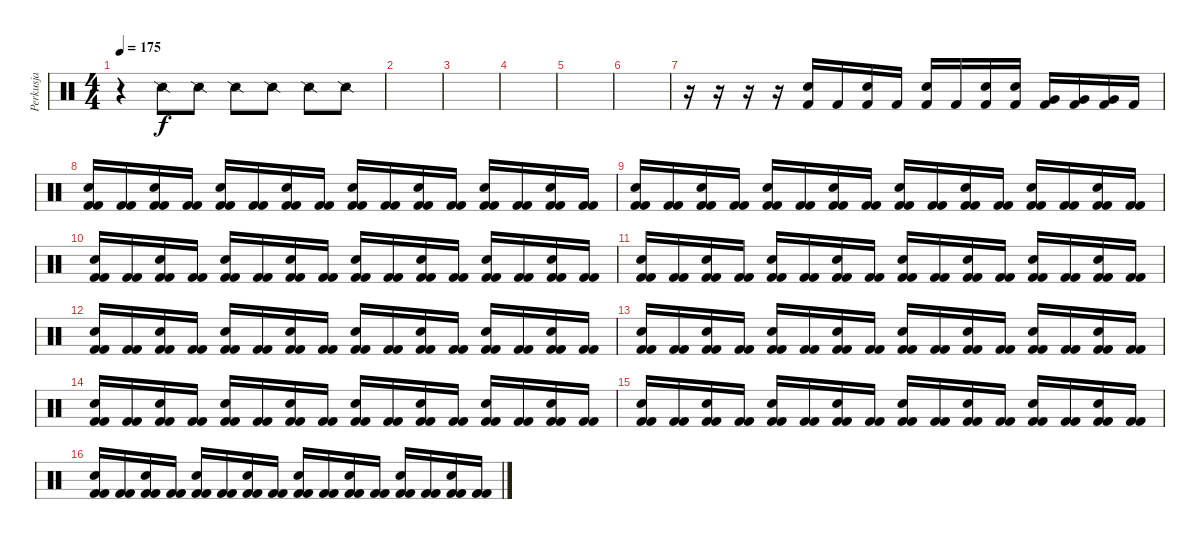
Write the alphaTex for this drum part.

\track ("Perkusja" "Perkusja") {instrument percussion}
\staff {score}
\articulation defaults
\ts (4 4)
\tempo 175
\clef neutral
\ks c
r.4{dy f} "Snare (side stick) 2".8 "Snare (side stick) 2".8 "Snare (side stick) 2".8 "Snare (side stick) 2".8 "Snare (side stick) 2".8 "Snare (side stick) 2".8 |
|
|
|
|
|
r.16 r.16 r.16 r.16 ("Snare (hit) 2" "Kick (hit) 2").16 "Kick (hit) 2".16 ("Snare (hit) 2" "Kick (hit) 2").16 "Kick (hit) 2".16 ("Electric Snare (hit)" "Kick (hit) 2").16 "Kick (hit) 2".16 ("Electric Snare (hit)" "Kick (hit) 2").16 ("Snare (hit) 2" "Kick (hit) 2").16 ("Very Low Tom (hit)" "Kick (hit) 2").16 ("Very Low Tom (hit)" "Kick (hit) 2").16 ("Very Low Tom (hit)" "Kick (hit) 2").16 "Kick (hit) 2".16 |
("Snare (hit) 2" "Kick (hit) 2" "Kick (hit) 2").16 ("Kick (hit) 2" "Kick (hit) 2").16 ("Snare (hit) 2" "Kick (hit) 2" "Kick (hit) 2").16 ("Kick (hit) 2" "Kick (hit) 2").16 ("Snare (hit) 2" "Kick (hit) 2" "Kick (hit) 2").16 ("Kick (hit) 2" "Kick (hit) 2").16 ("Snare (hit) 2" "Kick (hit) 2" "Kick (hit) 2").16 ("Kick (hit) 2" "Kick (hit) 2").16 ("Snare (hit) 2" "Kick (hit) 2" "Kick (hit) 2").16 ("Kick (hit) 2" "Kick (hit) 2").16 ("Snare (hit) 2" "Kick (hit) 2" "Kick (hit) 2").16 ("Kick (hit) 2" "Kick (hit) 2").16 ("Snare (hit) 2" "Kick (hit) 2" "Kick (hit) 2").16 ("Kick (hit) 2" "Kick (hit) 2").16 ("Snare (hit) 2" "Kick (hit) 2" "Kick (hit) 2").16 ("Kick (hit) 2" "Kick (hit) 2").16 |
("Snare (hit) 2" "Kick (hit) 2" "Kick (hit) 2").16 ("Kick (hit) 2" "Kick (hit) 2").16 ("Snare (hit) 2" "Kick (hit) 2" "Kick (hit) 2").16 ("Kick (hit) 2" "Kick (hit) 2").16 ("Snare (hit) 2" "Kick (hit) 2" "Kick (hit) 2").16 ("Kick (hit) 2" "Kick (hit) 2").16 ("Snare (hit) 2" "Kick (hit) 2" "Kick (hit) 2").16 ("Kick (hit) 2" "Kick (hit) 2").16 ("Snare (hit) 2" "Kick (hit) 2" "Kick (hit) 2").16 ("Kick (hit) 2" "Kick (hit) 2").16 ("Snare (hit) 2" "Kick (hit) 2" "Kick (hit) 2").16 ("Kick (hit) 2" "Kick (hit) 2").16 ("Snare (hit) 2" "Kick (hit) 2" "Kick (hit) 2").16 ("Kick (hit) 2" "Kick (hit) 2").16 ("Snare (hit) 2" "Kick (hit) 2" "Kick (hit) 2").16 ("Kick (hit) 2" "Kick (hit) 2").16 |
("Snare (hit) 2" "Kick (hit) 2" "Kick (hit) 2").16 ("Kick (hit) 2" "Kick (hit) 2").16 ("Snare (hit) 2" "Kick (hit) 2" "Kick (hit) 2").16 ("Kick (hit) 2" "Kick (hit) 2").16 ("Snare (hit) 2" "Kick (hit) 2" "Kick (hit) 2").16 ("Kick (hit) 2" "Kick (hit) 2").16 ("Snare (hit) 2" "Kick (hit) 2" "Kick (hit) 2").16 ("Kick (hit) 2" "Kick (hit) 2").16 ("Snare (hit) 2" "Kick (hit) 2" "Kick (hit) 2").16 ("Kick (hit) 2" "Kick (hit) 2").16 ("Snare (hit) 2" "Kick (hit) 2" "Kick (hit) 2").16 ("Kick (hit) 2" "Kick (hit) 2").16 ("Snare (hit) 2" "Kick (hit) 2" "Kick (hit) 2").16 ("Kick (hit) 2" "Kick (hit) 2").16 ("Snare (hit) 2" "Kick (hit) 2" "Kick (hit) 2").16 ("Kick (hit) 2" "Kick (hit) 2").16 |
("Snare (hit) 2" "Kick (hit) 2" "Kick (hit) 2").16 ("Kick (hit) 2" "Kick (hit) 2").16 ("Snare (hit) 2" "Kick (hit) 2" "Kick (hit) 2").16 ("Kick (hit) 2" "Kick (hit) 2").16 ("Snare (hit) 2" "Kick (hit) 2" "Kick (hit) 2").16 ("Kick (hit) 2" "Kick (hit) 2").16 ("Snare (hit) 2" "Kick (hit) 2" "Kick (hit) 2").16 ("Kick (hit) 2" "Kick (hit) 2").16 ("Snare (hit) 2" "Kick (hit) 2" "Kick (hit) 2").16 ("Kick (hit) 2" "Kick (hit) 2").16 ("Snare (hit) 2" "Kick (hit) 2" "Kick (hit) 2").16 ("Kick (hit) 2" "Kick (hit) 2").16 ("Snare (hit) 2" "Kick (hit) 2" "Kick (hit) 2").16 ("Kick (hit) 2" "Kick (hit) 2").16 ("Snare (hit) 2" "Kick (hit) 2" "Kick (hit) 2").16 ("Kick (hit) 2" "Kick (hit) 2").16 |
("Snare (hit) 2" "Kick (hit) 2" "Kick (hit) 2").16 ("Kick (hit) 2" "Kick (hit) 2").16 ("Snare (hit) 2" "Kick (hit) 2" "Kick (hit) 2").16 ("Kick (hit) 2" "Kick (hit) 2").16 ("Snare (hit) 2" "Kick (hit) 2" "Kick (hit) 2").16 ("Kick (hit) 2" "Kick (hit) 2").16 ("Snare (hit) 2" "Kick (hit) 2" "Kick (hit) 2").16 ("Kick (hit) 2" "Kick (hit) 2").16 ("Snare (hit) 2" "Kick (hit) 2" "Kick (hit) 2").16 ("Kick (hit) 2" "Kick (hit) 2").16 ("Snare (hit) 2" "Kick (hit) 2" "Kick (hit) 2").16 ("Kick (hit) 2" "Kick (hit) 2").16 ("Snare (hit) 2" "Kick (hit) 2" "Kick (hit) 2").16 ("Kick (hit) 2" "Kick (hit) 2").16 ("Snare (hit) 2" "Kick (hit) 2" "Kick (hit) 2").16 ("Kick (hit) 2" "Kick (hit) 2").16 |
("Snare (hit) 2" "Kick (hit) 2" "Kick (hit) 2").16 ("Kick (hit) 2" "Kick (hit) 2").16 ("Snare (hit) 2" "Kick (hit) 2" "Kick (hit) 2").16 ("Kick (hit) 2" "Kick (hit) 2").16 ("Snare (hit) 2" "Kick (hit) 2" "Kick (hit) 2").16 ("Kick (hit) 2" "Kick (hit) 2").16 ("Snare (hit) 2" "Kick (hit) 2" "Kick (hit) 2").16 ("Kick (hit) 2" "Kick (hit) 2").16 ("Snare (hit) 2" "Kick (hit) 2" "Kick (hit) 2").16 ("Kick (hit) 2" "Kick (hit) 2").16 ("Snare (hit) 2" "Kick (hit) 2" "Kick (hit) 2").16 ("Kick (hit) 2" "Kick (hit) 2").16 ("Snare (hit) 2" "Kick (hit) 2" "Kick (hit) 2").16 ("Kick (hit) 2" "Kick (hit) 2").16 ("Snare (hit) 2" "Kick (hit) 2" "Kick (hit) 2").16 ("Kick (hit) 2" "Kick (hit) 2").16 |
("Snare (hit) 2" "Kick (hit) 2" "Kick (hit) 2").16 ("Kick (hit) 2" "Kick (hit) 2").16 ("Snare (hit) 2" "Kick (hit) 2" "Kick (hit) 2").16 ("Kick (hit) 2" "Kick (hit) 2").16 ("Snare (hit) 2" "Kick (hit) 2" "Kick (hit) 2").16 ("Kick (hit) 2" "Kick (hit) 2").16 ("Snare (hit) 2" "Kick (hit) 2" "Kick (hit) 2").16 ("Kick (hit) 2" "Kick (hit) 2").16 ("Snare (hit) 2" "Kick (hit) 2" "Kick (hit) 2").16 ("Kick (hit) 2" "Kick (hit) 2").16 ("Snare (hit) 2" "Kick (hit) 2" "Kick (hit) 2").16 ("Kick (hit) 2" "Kick (hit) 2").16 ("Snare (hit) 2" "Kick (hit) 2" "Kick (hit) 2").16 ("Kick (hit) 2" "Kick (hit) 2").16 ("Snare (hit) 2" "Kick (hit) 2" "Kick (hit) 2").16 ("Kick (hit) 2" "Kick (hit) 2").16 |
("Snare (hit) 2" "Kick (hit) 2" "Kick (hit) 2").16 ("Kick (hit) 2" "Kick (hit) 2").16 ("Snare (hit) 2" "Kick (hit) 2" "Kick (hit) 2").16 ("Kick (hit) 2" "Kick (hit) 2").16 ("Snare (hit) 2" "Kick (hit) 2" "Kick (hit) 2").16 ("Kick (hit) 2" "Kick (hit) 2").16 ("Snare (hit) 2" "Kick (hit) 2" "Kick (hit) 2").16 ("Kick (hit) 2" "Kick (hit) 2").16 ("Snare (hit) 2" "Kick (hit) 2" "Kick (hit) 2").16 ("Kick (hit) 2" "Kick (hit) 2").16 ("Snare (hit) 2" "Kick (hit) 2" "Kick (hit) 2").16 ("Kick (hit) 2" "Kick (hit) 2").16 ("Snare (hit) 2" "Kick (hit) 2" "Kick (hit) 2").16 ("Kick (hit) 2" "Kick (hit) 2").16 ("Snare (hit) 2" "Kick (hit) 2" "Kick (hit) 2").16 ("Kick (hit) 2" "Kick (hit) 2").16 |
("Snare (hit) 2" "Kick (hit) 2" "Kick (hit) 2").16 ("Kick (hit) 2" "Kick (hit) 2").16 ("Snare (hit) 2" "Kick (hit) 2" "Kick (hit) 2").16 ("Kick (hit) 2" "Kick (hit) 2").16 ("Snare (hit) 2" "Kick (hit) 2" "Kick (hit) 2").16 ("Kick (hit) 2" "Kick (hit) 2").16 ("Snare (hit) 2" "Kick (hit) 2" "Kick (hit) 2").16 ("Kick (hit) 2" "Kick (hit) 2").16 ("Snare (hit) 2" "Kick (hit) 2" "Kick (hit) 2").16 ("Kick (hit) 2" "Kick (hit) 2").16 ("Snare (hit) 2" "Kick (hit) 2" "Kick (hit) 2").16 ("Kick (hit) 2" "Kick (hit) 2").16 ("Snare (hit) 2" "Kick (hit) 2" "Kick (hit) 2").16 ("Kick (hit) 2" "Kick (hit) 2").16 ("Snare (hit) 2" "Kick (hit) 2" "Kick (hit) 2").16 ("Kick (hit) 2" "Kick (hit) 2").16
